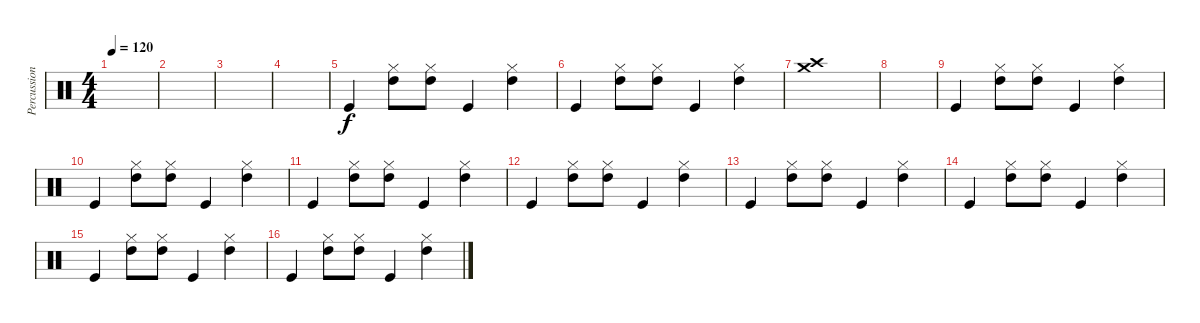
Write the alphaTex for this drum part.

\track ("Percussion" "Percussion") {instrument percussion}
\staff {score}
\articulation defaults
\ts (4 4)
\tempo 120
\clef neutral
\ks c
|
|
|
|
"Kick (hit)".4 ("Hi-Hat (closed)" "High Tom (hit)").8 ("Hi-Hat (closed)" "High Tom (hit)").8 "Kick (hit)".4 ("Hi-Hat (closed)" "High Tom (hit)").4 |
"Kick (hit)".4 ("Hi-Hat (closed)" "High Tom (hit)").8 ("Hi-Hat (closed)" "High Tom (hit)").8 "Kick (hit)".4 ("Hi-Hat (closed)" "High Tom (hit)").4 |
("Crash high (hit)" "Crash medium (hit)").1 |
|
"Kick (hit)".4 ("Hi-Hat (closed)" "High Tom (hit)").8 ("Hi-Hat (closed)" "High Tom (hit)").8 "Kick (hit)".4 ("Hi-Hat (closed)" "High Tom (hit)").4 |
"Kick (hit)".4 ("Hi-Hat (closed)" "High Tom (hit)").8 ("Hi-Hat (closed)" "High Tom (hit)").8 "Kick (hit)".4 ("Hi-Hat (closed)" "High Tom (hit)").4 |
"Kick (hit)".4 ("Hi-Hat (closed)" "High Tom (hit)").8 ("Hi-Hat (closed)" "High Tom (hit)").8 "Kick (hit)".4 ("Hi-Hat (closed)" "High Tom (hit)").4 |
"Kick (hit)".4 ("Hi-Hat (closed)" "High Tom (hit)").8 ("Hi-Hat (closed)" "High Tom (hit)").8 "Kick (hit)".4 ("Hi-Hat (closed)" "High Tom (hit)").4 |
"Kick (hit)".4 ("Hi-Hat (closed)" "High Tom (hit)").8 ("Hi-Hat (closed)" "High Tom (hit)").8 "Kick (hit)".4 ("Hi-Hat (closed)" "High Tom (hit)").4 |
"Kick (hit)".4 ("Hi-Hat (closed)" "High Tom (hit)").8 ("Hi-Hat (closed)" "High Tom (hit)").8 "Kick (hit)".4 ("Hi-Hat (closed)" "High Tom (hit)").4 |
"Kick (hit)".4 ("Hi-Hat (closed)" "High Tom (hit)").8 ("Hi-Hat (closed)" "High Tom (hit)").8 "Kick (hit)".4 ("Hi-Hat (closed)" "High Tom (hit)").4 |
"Kick (hit)".4 ("Hi-Hat (closed)" "High Tom (hit)").8 ("Hi-Hat (closed)" "High Tom (hit)").8 "Kick (hit)".4 ("Hi-Hat (closed)" "High Tom (hit)").4
